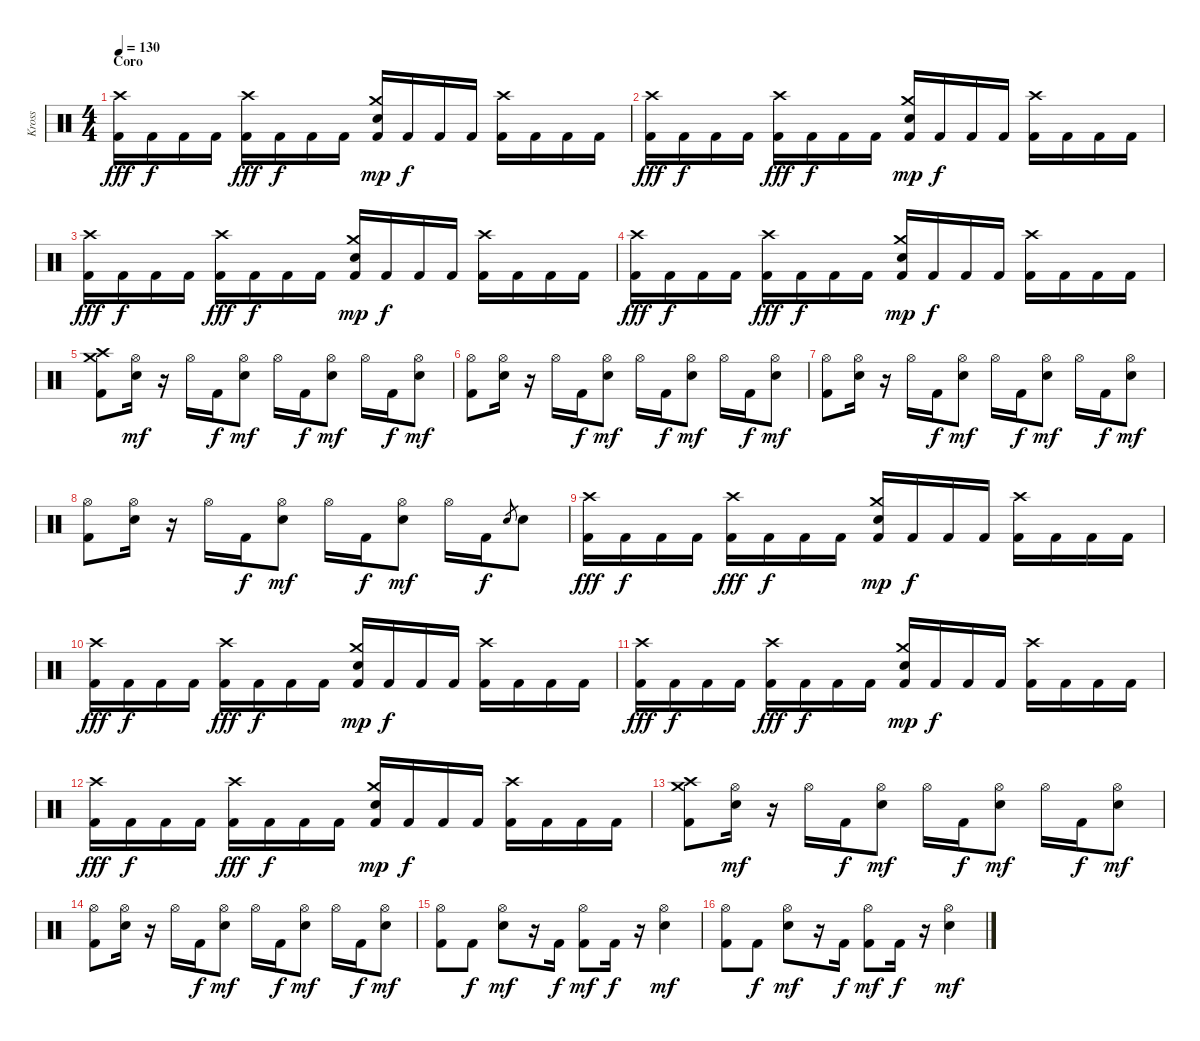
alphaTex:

\track ("Kross" "Kross") {instrument percussion}
\staff {score}
\articulation defaults
\ts (4 4)
\section ("" "Coro")
\tempo 130
\clef neutral
\ks c
("Crash high (hit)" "Kick (hit) 2").16{dy fff} "Kick (hit) 2".16{dy f} "Kick (hit) 2".16 "Kick (hit) 2".16 ("Crash high (hit)" "Kick (hit) 2").16{dy fff} "Kick (hit) 2".16{dy f} "Kick (hit) 2".16 "Kick (hit) 2".16 ("Crash medium (hit)" "Snare (hit) 2" "Kick (hit) 2").16{dy mp} "Kick (hit) 2".16{dy f} "Kick (hit) 2".16 "Kick (hit) 2".16 ("Crash high (hit)" "Kick (hit) 2").16 "Kick (hit) 2".16 "Kick (hit) 2".16 "Kick (hit) 2".16 |
("Crash high (hit)" "Kick (hit) 2").16{dy fff} "Kick (hit) 2".16{dy f} "Kick (hit) 2".16 "Kick (hit) 2".16 ("Crash high (hit)" "Kick (hit) 2").16{dy fff} "Kick (hit) 2".16{dy f} "Kick (hit) 2".16 "Kick (hit) 2".16 ("Crash medium (hit)" "Snare (hit) 2" "Kick (hit) 2").16{dy mp} "Kick (hit) 2".16{dy f} "Kick (hit) 2".16 "Kick (hit) 2".16 ("Crash high (hit)" "Kick (hit) 2").16 "Kick (hit) 2".16 "Kick (hit) 2".16 "Kick (hit) 2".16 |
("Crash high (hit)" "Kick (hit) 2").16{dy fff} "Kick (hit) 2".16{dy f} "Kick (hit) 2".16 "Kick (hit) 2".16 ("Crash high (hit)" "Kick (hit) 2").16{dy fff} "Kick (hit) 2".16{dy f} "Kick (hit) 2".16 "Kick (hit) 2".16 ("Crash medium (hit)" "Snare (hit) 2" "Kick (hit) 2").16{dy mp} "Kick (hit) 2".16{dy f} "Kick (hit) 2".16 "Kick (hit) 2".16 ("Crash high (hit)" "Kick (hit) 2").16 "Kick (hit) 2".16 "Kick (hit) 2".16 "Kick (hit) 2".16 |
("Crash high (hit)" "Kick (hit) 2").16{dy fff} "Kick (hit) 2".16{dy f} "Kick (hit) 2".16 "Kick (hit) 2".16 ("Crash high (hit)" "Kick (hit) 2").16{dy fff} "Kick (hit) 2".16{dy f} "Kick (hit) 2".16 "Kick (hit) 2".16 ("Crash medium (hit)" "Snare (hit) 2" "Kick (hit) 2").16{dy mp} "Kick (hit) 2".16{dy f} "Kick (hit) 2".16 "Kick (hit) 2".16 ("Crash high (hit)" "Kick (hit) 2").16 "Kick (hit) 2".16 "Kick (hit) 2".16 "Kick (hit) 2".16 |
("Crash high (hit)" "Crash medium (hit)" "Kick (hit) 2").8 ("Hi-Hat (open)" "Snare (hit) 2").16{dy mf} r.16 "Hi-Hat (open)".16 "Kick (hit) 2".16{dy f} ("Hi-Hat (open)" "Snare (hit) 2").8{dy mf} "Hi-Hat (open)".16 "Kick (hit) 2".16{dy f} ("Hi-Hat (open)" "Snare (hit) 2").8{dy mf} "Hi-Hat (open)".16 "Kick (hit) 2".16{dy f} ("Hi-Hat (open)" "Snare (hit) 2").8{dy mf} |
("Hi-Hat (open)" "Kick (hit) 2").8 ("Hi-Hat (open)" "Snare (hit) 2").16 r.16 "Hi-Hat (open)".16 "Kick (hit) 2".16{dy f} ("Hi-Hat (open)" "Snare (hit) 2").8{dy mf} "Hi-Hat (open)".16 "Kick (hit) 2".16{dy f} ("Hi-Hat (open)" "Snare (hit) 2").8{dy mf} "Hi-Hat (open)".16 "Kick (hit) 2".16{dy f} ("Hi-Hat (open)" "Snare (hit) 2").8{dy mf} |
("Hi-Hat (open)" "Kick (hit) 2").8 ("Hi-Hat (open)" "Snare (hit) 2").16 r.16 "Hi-Hat (open)".16 "Kick (hit) 2".16{dy f} ("Hi-Hat (open)" "Snare (hit) 2").8{dy mf} "Hi-Hat (open)".16 "Kick (hit) 2".16{dy f} ("Hi-Hat (open)" "Snare (hit) 2").8{dy mf} "Hi-Hat (open)".16 "Kick (hit) 2".16{dy f} ("Hi-Hat (open)" "Snare (hit) 2").8{dy mf} |
("Hi-Hat (open)" "Kick (hit) 2").8 ("Hi-Hat (open)" "Snare (hit) 2").16 r.16 "Hi-Hat (open)".16 "Kick (hit) 2".16{dy f} ("Hi-Hat (open)" "Snare (hit) 2").8{dy mf} "Hi-Hat (open)".16 "Kick (hit) 2".16{dy f} ("Hi-Hat (open)" "Snare (hit) 2").8{dy mf} "Hi-Hat (open)".16 "Kick (hit) 2".16{dy f} "Snare (hit) 2".8{gr} "Snare (hit) 2".8 |
("Crash high (hit)" "Kick (hit) 2").16{dy fff} "Kick (hit) 2".16{dy f} "Kick (hit) 2".16 "Kick (hit) 2".16 ("Crash high (hit)" "Kick (hit) 2").16{dy fff} "Kick (hit) 2".16{dy f} "Kick (hit) 2".16 "Kick (hit) 2".16 ("Crash medium (hit)" "Snare (hit) 2" "Kick (hit) 2").16{dy mp} "Kick (hit) 2".16{dy f} "Kick (hit) 2".16 "Kick (hit) 2".16 ("Crash high (hit)" "Kick (hit) 2").16 "Kick (hit) 2".16 "Kick (hit) 2".16 "Kick (hit) 2".16 |
("Crash high (hit)" "Kick (hit) 2").16{dy fff} "Kick (hit) 2".16{dy f} "Kick (hit) 2".16 "Kick (hit) 2".16 ("Crash high (hit)" "Kick (hit) 2").16{dy fff} "Kick (hit) 2".16{dy f} "Kick (hit) 2".16 "Kick (hit) 2".16 ("Crash medium (hit)" "Snare (hit) 2" "Kick (hit) 2").16{dy mp} "Kick (hit) 2".16{dy f} "Kick (hit) 2".16 "Kick (hit) 2".16 ("Crash high (hit)" "Kick (hit) 2").16 "Kick (hit) 2".16 "Kick (hit) 2".16 "Kick (hit) 2".16 |
("Crash high (hit)" "Kick (hit) 2").16{dy fff} "Kick (hit) 2".16{dy f} "Kick (hit) 2".16 "Kick (hit) 2".16 ("Crash high (hit)" "Kick (hit) 2").16{dy fff} "Kick (hit) 2".16{dy f} "Kick (hit) 2".16 "Kick (hit) 2".16 ("Crash medium (hit)" "Snare (hit) 2" "Kick (hit) 2").16{dy mp} "Kick (hit) 2".16{dy f} "Kick (hit) 2".16 "Kick (hit) 2".16 ("Crash high (hit)" "Kick (hit) 2").16 "Kick (hit) 2".16 "Kick (hit) 2".16 "Kick (hit) 2".16 |
("Crash high (hit)" "Kick (hit) 2").16{dy fff} "Kick (hit) 2".16{dy f} "Kick (hit) 2".16 "Kick (hit) 2".16 ("Crash high (hit)" "Kick (hit) 2").16{dy fff} "Kick (hit) 2".16{dy f} "Kick (hit) 2".16 "Kick (hit) 2".16 ("Crash medium (hit)" "Snare (hit) 2" "Kick (hit) 2").16{dy mp} "Kick (hit) 2".16{dy f} "Kick (hit) 2".16 "Kick (hit) 2".16 ("Crash high (hit)" "Kick (hit) 2").16 "Kick (hit) 2".16 "Kick (hit) 2".16 "Kick (hit) 2".16 |
("Crash high (hit)" "Crash medium (hit)" "Kick (hit) 2").8 ("Hi-Hat (open)" "Snare (hit) 2").16{dy mf} r.16 "Hi-Hat (open)".16 "Kick (hit) 2".16{dy f} ("Hi-Hat (open)" "Snare (hit) 2").8{dy mf} "Hi-Hat (open)".16 "Kick (hit) 2".16{dy f} ("Hi-Hat (open)" "Snare (hit) 2").8{dy mf} "Hi-Hat (open)".16 "Kick (hit) 2".16{dy f} ("Hi-Hat (open)" "Snare (hit) 2").8{dy mf} |
("Hi-Hat (open)" "Kick (hit) 2").8 ("Hi-Hat (open)" "Snare (hit) 2").16 r.16 "Hi-Hat (open)".16 "Kick (hit) 2".16{dy f} ("Hi-Hat (open)" "Snare (hit) 2").8{dy mf} "Hi-Hat (open)".16 "Kick (hit) 2".16{dy f} ("Hi-Hat (open)" "Snare (hit) 2").8{dy mf} "Hi-Hat (open)".16 "Kick (hit) 2".16{dy f} ("Hi-Hat (open)" "Snare (hit) 2").8{dy mf} |
("Hi-Hat (open)" "Kick (hit) 2").8 "Kick (hit) 2".8{dy f} ("Hi-Hat (open)" "Snare (hit) 2").8{dy mf} r.16 "Kick (hit) 2".16{dy f} ("Hi-Hat (open)" "Kick (hit) 2").8{dy mf} "Kick (hit) 2".16{dy f} r.16 ("Hi-Hat (open)" "Snare (hit) 2").4{dy mf} |
("Hi-Hat (open)" "Kick (hit) 2").8 "Kick (hit) 2".8{dy f} ("Hi-Hat (open)" "Snare (hit) 2").8{dy mf} r.16 "Kick (hit) 2".16{dy f} ("Hi-Hat (open)" "Kick (hit) 2").8{dy mf} "Kick (hit) 2".16{dy f} r.16 ("Hi-Hat (open)" "Snare (hit) 2").4{dy mf}
